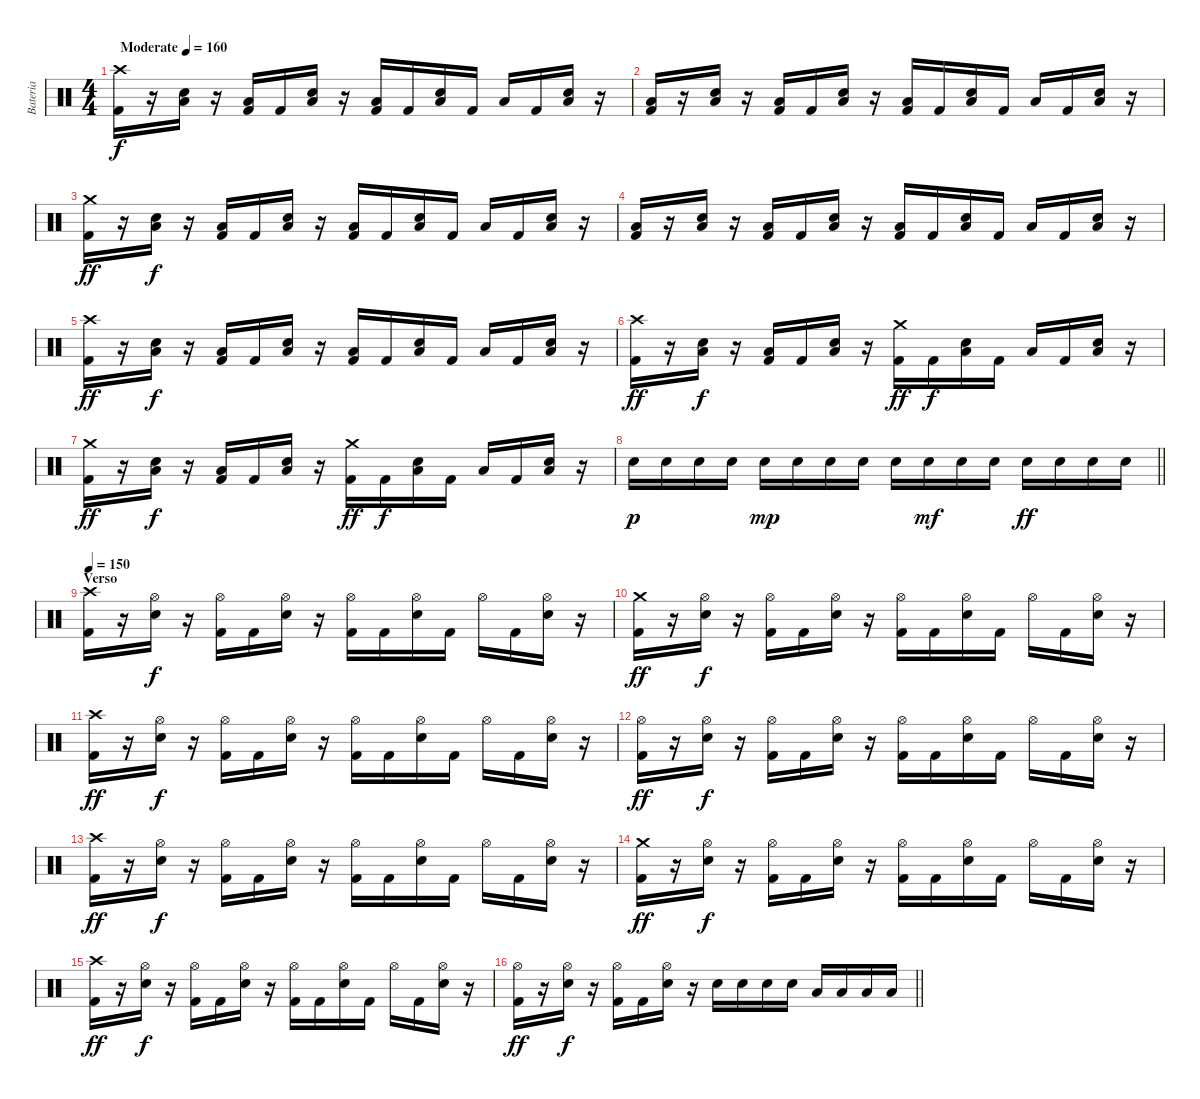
\track ("Bateria" "Bateria") {instrument percussion}
\staff {score}
\articulation defaults
\ts (4 4)
\tempo (160 "Moderate")
\clef neutral
\ks c
("Crash high (hit)" "Kick (hit) 2").16{dy f} r.16 ("Low Floor Tom (hit)" "Electric Snare (hit)").16 r.16 ("Low Floor Tom (hit)" "Kick (hit) 2").16 "Kick (hit) 2".16 ("Low Floor Tom (hit)" "Electric Snare (hit)").16 r.16 ("Low Floor Tom (hit)" "Kick (hit) 2").16 "Kick (hit) 2".16 ("Low Floor Tom (hit)" "Electric Snare (hit)").16 "Kick (hit) 2".16 "Low Floor Tom (hit)".16 "Kick (hit) 2".16 ("Low Floor Tom (hit)" "Electric Snare (hit)").16 r.16 |
("Low Floor Tom (hit)" "Kick (hit) 2").16 r.16 ("Low Floor Tom (hit)" "Electric Snare (hit)").16 r.16 ("Low Floor Tom (hit)" "Kick (hit) 2").16 "Kick (hit) 2".16 ("Low Floor Tom (hit)" "Electric Snare (hit)").16 r.16 ("Low Floor Tom (hit)" "Kick (hit) 2").16 "Kick (hit) 2".16 ("Low Floor Tom (hit)" "Electric Snare (hit)").16 "Kick (hit) 2".16 "Low Floor Tom (hit)".16 "Kick (hit) 2".16 ("Low Floor Tom (hit)" "Electric Snare (hit)").16 r.16 |
("Crash medium (hit)" "Kick (hit) 2").16{dy ff} r.16 ("Low Floor Tom (hit)" "Electric Snare (hit)").16{dy f} r.16 ("Low Floor Tom (hit)" "Kick (hit) 2").16 "Kick (hit) 2".16 ("Low Floor Tom (hit)" "Electric Snare (hit)").16 r.16 ("Low Floor Tom (hit)" "Kick (hit) 2").16 "Kick (hit) 2".16 ("Low Floor Tom (hit)" "Electric Snare (hit)").16 "Kick (hit) 2".16 "Low Floor Tom (hit)".16 "Kick (hit) 2".16 ("Low Floor Tom (hit)" "Electric Snare (hit)").16 r.16 |
("Low Floor Tom (hit)" "Kick (hit) 2").16 r.16 ("Low Floor Tom (hit)" "Electric Snare (hit)").16 r.16 ("Low Floor Tom (hit)" "Kick (hit) 2").16 "Kick (hit) 2".16 ("Low Floor Tom (hit)" "Electric Snare (hit)").16 r.16 ("Low Floor Tom (hit)" "Kick (hit) 2").16 "Kick (hit) 2".16 ("Low Floor Tom (hit)" "Electric Snare (hit)").16 "Kick (hit) 2".16 "Low Floor Tom (hit)".16 "Kick (hit) 2".16 ("Low Floor Tom (hit)" "Electric Snare (hit)").16 r.16 |
("Crash high (hit)" "Kick (hit) 2").16{dy ff} r.16 ("Low Floor Tom (hit)" "Electric Snare (hit)").16{dy f} r.16 ("Low Floor Tom (hit)" "Kick (hit) 2").16 "Kick (hit) 2".16 ("Low Floor Tom (hit)" "Electric Snare (hit)").16 r.16 ("Low Floor Tom (hit)" "Kick (hit) 2").16 "Kick (hit) 2".16 ("Low Floor Tom (hit)" "Electric Snare (hit)").16 "Kick (hit) 2".16 "Low Floor Tom (hit)".16 "Kick (hit) 2".16 ("Low Floor Tom (hit)" "Electric Snare (hit)").16 r.16 |
("Crash high (hit)" "Kick (hit) 2").16{dy ff} r.16 ("Low Floor Tom (hit)" "Electric Snare (hit)").16{dy f} r.16 ("Low Floor Tom (hit)" "Kick (hit) 2").16 "Kick (hit) 2".16 ("Low Floor Tom (hit)" "Electric Snare (hit)").16 r.16 ("Crash medium (hit)" "Kick (hit) 2").16{dy ff} "Kick (hit) 2".16{dy f} ("Low Floor Tom (hit)" "Electric Snare (hit)").16 "Kick (hit) 2".16 "Low Floor Tom (hit)".16 "Kick (hit) 2".16 ("Low Floor Tom (hit)" "Electric Snare (hit)").16 r.16 |
("Crash medium (hit)" "Kick (hit) 2").16{dy ff} r.16 ("Low Floor Tom (hit)" "Electric Snare (hit)").16{dy f} r.16 ("Low Floor Tom (hit)" "Kick (hit) 2").16 "Kick (hit) 2".16 ("Low Floor Tom (hit)" "Electric Snare (hit)").16 r.16 ("Crash medium (hit)" "Kick (hit) 2").16{dy ff} "Kick (hit) 2".16{dy f} ("Low Floor Tom (hit)" "Electric Snare (hit)").16 "Kick (hit) 2".16 "Low Floor Tom (hit)".16 "Kick (hit) 2".16 ("Low Floor Tom (hit)" "Electric Snare (hit)").16 r.16 |
\barLineRight lightlight "Electric Snare (hit)".16{dy p} "Electric Snare (hit)".16 "Electric Snare (hit)".16 "Electric Snare (hit)".16 "Electric Snare (hit)".16{dy mp} "Electric Snare (hit)".16 "Electric Snare (hit)".16 "Electric Snare (hit)".16 "Electric Snare (hit)".16 "Electric Snare (hit)".16{dy mf} "Electric Snare (hit)".16 "Electric Snare (hit)".16 "Electric Snare (hit)".16{dy ff} "Electric Snare (hit)".16 "Electric Snare (hit)".16 "Electric Snare (hit)".16
|
\section ("" "Verso")
\tempo 150
("Crash high (hit)" "Kick (hit) 2").16 r.16 ("Hi-Hat (open)" "Electric Snare (hit)").16{dy f} r.16 ("Hi-Hat (open)" "Kick (hit) 2").16 "Kick (hit) 2".16 ("Hi-Hat (open)" "Electric Snare (hit)").16 r.16 ("Hi-Hat (open)" "Kick (hit) 2").16 "Kick (hit) 2".16 ("Hi-Hat (open)" "Electric Snare (hit)").16 "Kick (hit) 2".16 "Hi-Hat (open)".16 "Kick (hit) 2".16 ("Hi-Hat (open)" "Electric Snare (hit)").16 r.16 |
("Crash medium (hit)" "Kick (hit) 2").16{dy ff} r.16 ("Hi-Hat (open)" "Electric Snare (hit)").16{dy f} r.16 ("Hi-Hat (open)" "Kick (hit) 2").16 "Kick (hit) 2".16 ("Hi-Hat (open)" "Electric Snare (hit)").16 r.16 ("Hi-Hat (open)" "Kick (hit) 2").16 "Kick (hit) 2".16 ("Hi-Hat (open)" "Electric Snare (hit)").16 "Kick (hit) 2".16 "Hi-Hat (open)".16 "Kick (hit) 2".16 ("Hi-Hat (open)" "Electric Snare (hit)").16 r.16 |
("Crash high (hit)" "Kick (hit) 2").16{dy ff} r.16 ("Hi-Hat (open)" "Electric Snare (hit)").16{dy f} r.16 ("Hi-Hat (open)" "Kick (hit) 2").16 "Kick (hit) 2".16 ("Hi-Hat (open)" "Electric Snare (hit)").16 r.16 ("Hi-Hat (open)" "Kick (hit) 2").16 "Kick (hit) 2".16 ("Hi-Hat (open)" "Electric Snare (hit)").16 "Kick (hit) 2".16 "Hi-Hat (open)".16 "Kick (hit) 2".16 ("Hi-Hat (open)" "Electric Snare (hit)").16 r.16 |
("Hi-Hat (open)" "Kick (hit) 2").16{dy ff} r.16 ("Hi-Hat (open)" "Electric Snare (hit)").16{dy f} r.16 ("Hi-Hat (open)" "Kick (hit) 2").16 "Kick (hit) 2".16 ("Hi-Hat (open)" "Electric Snare (hit)").16 r.16 ("Hi-Hat (open)" "Kick (hit) 2").16 "Kick (hit) 2".16 ("Hi-Hat (open)" "Electric Snare (hit)").16 "Kick (hit) 2".16 "Hi-Hat (open)".16 "Kick (hit) 2".16 ("Hi-Hat (open)" "Electric Snare (hit)").16 r.16 |
("Crash high (hit)" "Kick (hit) 2").16{dy ff} r.16 ("Hi-Hat (open)" "Electric Snare (hit)").16{dy f} r.16 ("Hi-Hat (open)" "Kick (hit) 2").16 "Kick (hit) 2".16 ("Hi-Hat (open)" "Electric Snare (hit)").16 r.16 ("Hi-Hat (open)" "Kick (hit) 2").16 "Kick (hit) 2".16 ("Hi-Hat (open)" "Electric Snare (hit)").16 "Kick (hit) 2".16 "Hi-Hat (open)".16 "Kick (hit) 2".16 ("Hi-Hat (open)" "Electric Snare (hit)").16 r.16 |
("Crash medium (hit)" "Kick (hit) 2").16{dy ff} r.16 ("Hi-Hat (open)" "Electric Snare (hit)").16{dy f} r.16 ("Hi-Hat (open)" "Kick (hit) 2").16 "Kick (hit) 2".16 ("Hi-Hat (open)" "Electric Snare (hit)").16 r.16 ("Hi-Hat (open)" "Kick (hit) 2").16 "Kick (hit) 2".16 ("Hi-Hat (open)" "Electric Snare (hit)").16 "Kick (hit) 2".16 "Hi-Hat (open)".16 "Kick (hit) 2".16 ("Hi-Hat (open)" "Electric Snare (hit)").16 r.16 |
("Crash high (hit)" "Kick (hit) 2").16{dy ff} r.16 ("Hi-Hat (open)" "Electric Snare (hit)").16{dy f} r.16 ("Hi-Hat (open)" "Kick (hit) 2").16 "Kick (hit) 2".16 ("Hi-Hat (open)" "Electric Snare (hit)").16 r.16 ("Hi-Hat (open)" "Kick (hit) 2").16 "Kick (hit) 2".16 ("Hi-Hat (open)" "Electric Snare (hit)").16 "Kick (hit) 2".16 "Hi-Hat (open)".16 "Kick (hit) 2".16 ("Hi-Hat (open)" "Electric Snare (hit)").16 r.16 |
\barLineRight lightlight
("Hi-Hat (open)" "Kick (hit) 2").16{dy ff} r.16 ("Hi-Hat (open)" "Electric Snare (hit)").16{dy f} r.16 ("Hi-Hat (open)" "Kick (hit) 2").16 "Kick (hit) 2".16 ("Hi-Hat (open)" "Electric Snare (hit)").16 r.16 "Electric Snare (hit)".16 "Electric Snare (hit)".16 "Electric Snare (hit)".16 "Electric Snare (hit)".16 "Low Tom (hit)".16 "Low Tom (hit)".16 "Low Floor Tom (hit)".16 "Low Floor Tom (hit)".16
